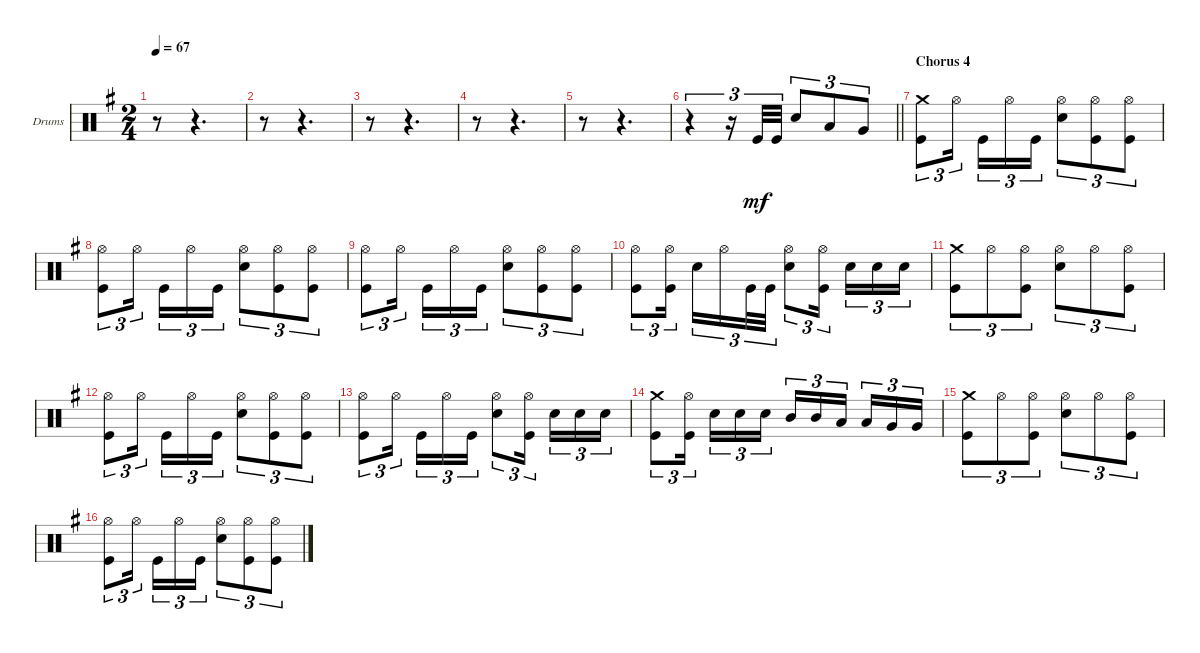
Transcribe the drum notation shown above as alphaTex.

\bracketExtendMode groupsimilarinstruments
\firstSystemTrackNameOrientation horizontal
\otherSystemsTrackNameOrientation horizontal
\track ("drums (Anton Zulganov)" "Drums") {instrument percussion}
\staff {score}
\articulation defaults
\ts (2 4)
\tempo 67
\clef neutral
\ks eminor
r.8{dy mf} r.4{d} |
r.8 r.4{d} |
r.8 r.4{d} |
r.8 r.4{d} |
r.8 r.4{d} |
\barLineRight lightlight
r.4{tu (3 2)} r.16{tu (3 2)} "Kick (hit)".32{tu (3 2)} "Kick (hit)".32{tu (3 2)} "Snare (hit) 2".8{tu (3 2)} "Low Tom (hit)".8{tu (3 2)} "Very Low Tom (hit)".8{tu (3 2)} |
\section ("" "Chorus 4")
("Crash medium (hit)" "Kick (hit)").8{tu (3 2)} "Hi-Hat (open)".16{tu (3 2)} "Kick (hit)".16{tu (3 2)} "Hi-Hat (open)".16{tu (3 2)} "Kick (hit)".16{tu (3 2)} ("Hi-Hat (open)" "Snare (hit) 2").8{tu (3 2)} ("Hi-Hat (open)" "Kick (hit)").8{tu (3 2)} ("Hi-Hat (open)" "Kick (hit)").8{tu (3 2)} |
("Hi-Hat (open)" "Kick (hit)").8{tu (3 2)} "Hi-Hat (open)".16{tu (3 2)} "Kick (hit)".16{tu (3 2)} "Hi-Hat (open)".16{tu (3 2)} "Kick (hit)".16{tu (3 2)} ("Hi-Hat (open)" "Snare (hit) 2").8{tu (3 2)} ("Hi-Hat (open)" "Kick (hit)").8{tu (3 2)} ("Hi-Hat (open)" "Kick (hit)").8{tu (3 2)} |
("Hi-Hat (open)" "Kick (hit)").8{tu (3 2)} "Hi-Hat (open)".16{tu (3 2)} "Kick (hit)".16{tu (3 2)} "Hi-Hat (open)".16{tu (3 2)} "Kick (hit)".16{tu (3 2)} ("Hi-Hat (open)" "Snare (hit) 2").8{tu (3 2)} ("Hi-Hat (open)" "Kick (hit)").8{tu (3 2)} ("Hi-Hat (open)" "Kick (hit)").8{tu (3 2)} |
("Hi-Hat (open)" "Kick (hit)").8{tu (3 2)} ("Hi-Hat (open)" "Kick (hit)").16{tu (3 2)} "Snare (hit) 2".16{tu (3 2)} "Hi-Hat (open)".16{tu (3 2)} "Kick (hit)".32{tu (3 2)} "Kick (hit)".32{tu (3 2)} ("Hi-Hat (open)" "Snare (hit) 2").8{tu (3 2)} ("Hi-Hat (open)" "Kick (hit)").16{tu (3 2)} "Snare (hit) 2".16{tu (3 2)} "Snare (hit) 2".16{tu (3 2)} "Snare (hit) 2".16{tu (3 2)} |
("Crash medium (hit)" "Kick (hit)").8{tu (3 2)} "Hi-Hat (open)".8{tu (3 2)} ("Hi-Hat (open)" "Kick (hit)").8{tu (3 2)} ("Hi-Hat (open)" "Snare (hit) 2").8{tu (3 2)} "Hi-Hat (open)".8{tu (3 2)} ("Hi-Hat (open)" "Kick (hit)").8{tu (3 2)} |
("Hi-Hat (open)" "Kick (hit)").8{tu (3 2)} "Hi-Hat (open)".16{tu (3 2)} "Kick (hit)".16{tu (3 2)} "Hi-Hat (open)".16{tu (3 2)} "Kick (hit)".16{tu (3 2)} ("Hi-Hat (open)" "Snare (hit) 2").8{tu (3 2)} ("Hi-Hat (open)" "Kick (hit)").8{tu (3 2)} ("Hi-Hat (open)" "Kick (hit)").8{tu (3 2)} |
("Hi-Hat (open)" "Kick (hit)").8{tu (3 2)} "Hi-Hat (open)".16{tu (3 2)} "Kick (hit)".16{tu (3 2)} "Hi-Hat (open)".16{tu (3 2)} "Kick (hit)".16{tu (3 2)} ("Hi-Hat (open)" "Snare (hit) 2").8{tu (3 2)} ("Hi-Hat (open)" "Kick (hit)").16{tu (3 2)} "Snare (hit) 2".16{tu (3 2)} "Snare (hit) 2".16{tu (3 2)} "Snare (hit) 2".16{tu (3 2)} |
("Crash medium (hit)" "Kick (hit)").8{tu (3 2)} ("Kick (hit)" "Hi-Hat (open)").16{tu (3 2)} "Snare (hit) 2".16{tu (3 2)} "Snare (hit) 2".16{tu (3 2)} "Snare (hit) 2".16{tu (3 2)} "Mid Tom (hit)".16{tu (3 2)} "Mid Tom (hit)".16{tu (3 2)} "Low Tom (hit)".16{tu (3 2)} "Low Tom (hit)".16{tu (3 2)} "Very Low Tom (hit)".16{tu (3 2)} "Very Low Tom (hit)".16{tu (3 2)} |
("Crash medium (hit)" "Kick (hit)").8{tu (3 2)} "Hi-Hat (open)".8{tu (3 2)} ("Hi-Hat (open)" "Kick (hit)").8{tu (3 2)} ("Hi-Hat (open)" "Snare (hit) 2").8{tu (3 2)} "Hi-Hat (open)".8{tu (3 2)} ("Hi-Hat (open)" "Kick (hit)").8{tu (3 2)} |
("Hi-Hat (open)" "Kick (hit)").8{tu (3 2)} "Hi-Hat (open)".16{tu (3 2)} "Kick (hit)".16{tu (3 2)} "Hi-Hat (open)".16{tu (3 2)} "Kick (hit)".16{tu (3 2)} ("Hi-Hat (open)" "Snare (hit) 2").8{tu (3 2)} ("Hi-Hat (open)" "Kick (hit)").8{tu (3 2)} ("Hi-Hat (open)" "Kick (hit)").8{tu (3 2)}
